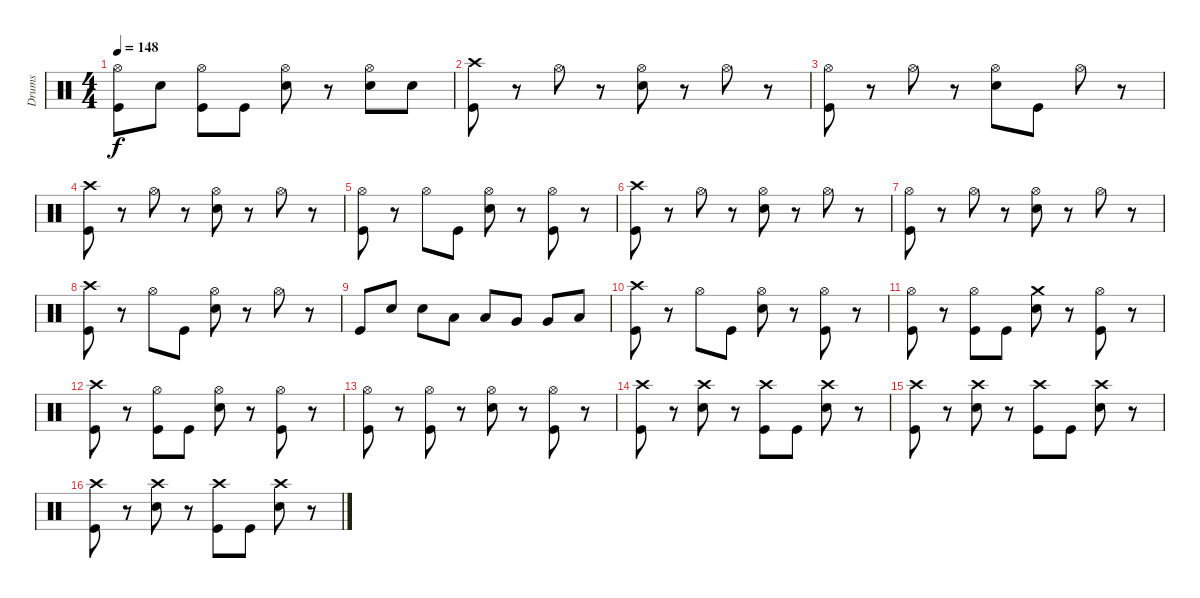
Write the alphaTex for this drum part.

\track ("Drums" "Drums") {instrument percussion}
\staff {score}
\articulation defaults
\ts (4 4)
\tempo 148
\clef neutral
\ks c
("Hi-Hat (open)" "Kick (hit)").8{dy f} "Snare (hit) 2".8 ("Hi-Hat (open)" "Kick (hit)").8 "Kick (hit)".8 ("Hi-Hat (open)" "Snare (hit) 2").8 r.8 ("Hi-Hat (open)" "Snare (hit) 2").8 "Snare (hit) 2".8 |
("Crash high (hit)" "Kick (hit)").8 r.8 "Hi-Hat (open)".8 r.8 ("Hi-Hat (open)" "Snare (hit) 2").8 r.8 "Hi-Hat (open)".8 r.8 |
("Hi-Hat (open)" "Kick (hit)").8 r.8 "Hi-Hat (open)".8 r.8 ("Hi-Hat (open)" "Snare (hit) 2").8 "Kick (hit)".8 "Hi-Hat (open)".8 r.8 |
("Crash high (hit)" "Kick (hit)").8 r.8 "Hi-Hat (open)".8 r.8 ("Hi-Hat (open)" "Snare (hit) 2").8 r.8 "Hi-Hat (open)".8 r.8 |
("Hi-Hat (open)" "Kick (hit)").8 r.8 "Hi-Hat (open)".8 "Kick (hit)".8 ("Hi-Hat (open)" "Snare (hit) 2").8 r.8 ("Hi-Hat (open)" "Kick (hit)").8 r.8 |
("Crash high (hit)" "Kick (hit)").8 r.8 "Hi-Hat (open)".8 r.8 ("Hi-Hat (open)" "Snare (hit) 2").8 r.8 "Hi-Hat (open)".8 r.8 |
("Hi-Hat (open)" "Kick (hit)").8 r.8 "Hi-Hat (open)".8 r.8 ("Hi-Hat (open)" "Snare (hit) 2").8 r.8 "Hi-Hat (open)".8 r.8 |
("Crash high (hit)" "Kick (hit)").8 r.8 "Hi-Hat (open)".8 "Kick (hit)".8 ("Hi-Hat (open)" "Snare (hit) 2").8 r.8 "Hi-Hat (open)".8 r.8 |
"Kick (hit)".8 "Snare (hit) 2".8 "Snare (hit) 2".8 "Low Tom (hit)".8 "Low Tom (hit)".8 "Very Low Tom (hit)".8 "Very Low Tom (hit)".8 "Low Floor Tom (hit)".8 |
("Kick (hit)" "Crash high (hit)").8 r.8 "Hi-Hat (open)".8 "Kick (hit)".8 ("Hi-Hat (open)" "Snare (hit) 2").8 r.8 ("Hi-Hat (open)" "Kick (hit)").8 r.8 |
("Kick (hit)" "Hi-Hat (open)").8 r.8 ("Hi-Hat (open)" "Kick (hit)").8 "Kick (hit)".8 ("Crash medium (hit)" "Snare (hit) 2").8 r.8 ("Hi-Hat (open)" "Kick (hit)").8 r.8 |
("Kick (hit)" "Crash high (hit)").8 r.8 ("Hi-Hat (open)" "Kick (hit)").8 "Kick (hit)".8 ("Hi-Hat (open)" "Snare (hit) 2").8 r.8 ("Hi-Hat (open)" "Kick (hit)").8 r.8 |
("Kick (hit)" "Hi-Hat (open)").8 r.8 ("Kick (hit)" "Hi-Hat (open)").8 r.8 ("Snare (hit) 2" "Hi-Hat (open)").8 r.8 ("Kick (hit)" "Hi-Hat (open)").8 r.8 |
("Crash high (hit)" "Kick (hit)").8 r.8 ("Snare (hit) 2" "Crash high (hit)").8 r.8 ("Kick (hit)" "Crash high (hit)").8 "Kick (hit)".8 ("Snare (hit) 2" "Crash high (hit)").8 r.8 |
("Crash high (hit)" "Kick (hit)").8 r.8 ("Snare (hit) 2" "Crash high (hit)").8 r.8 ("Kick (hit)" "Crash high (hit)").8 "Kick (hit)".8 ("Snare (hit) 2" "Crash high (hit)").8 r.8 |
("Crash high (hit)" "Kick (hit)").8 r.8 ("Snare (hit) 2" "Crash high (hit)").8 r.8 ("Kick (hit)" "Crash high (hit)").8 "Kick (hit)".8 ("Snare (hit) 2" "Crash high (hit)").8 r.8
